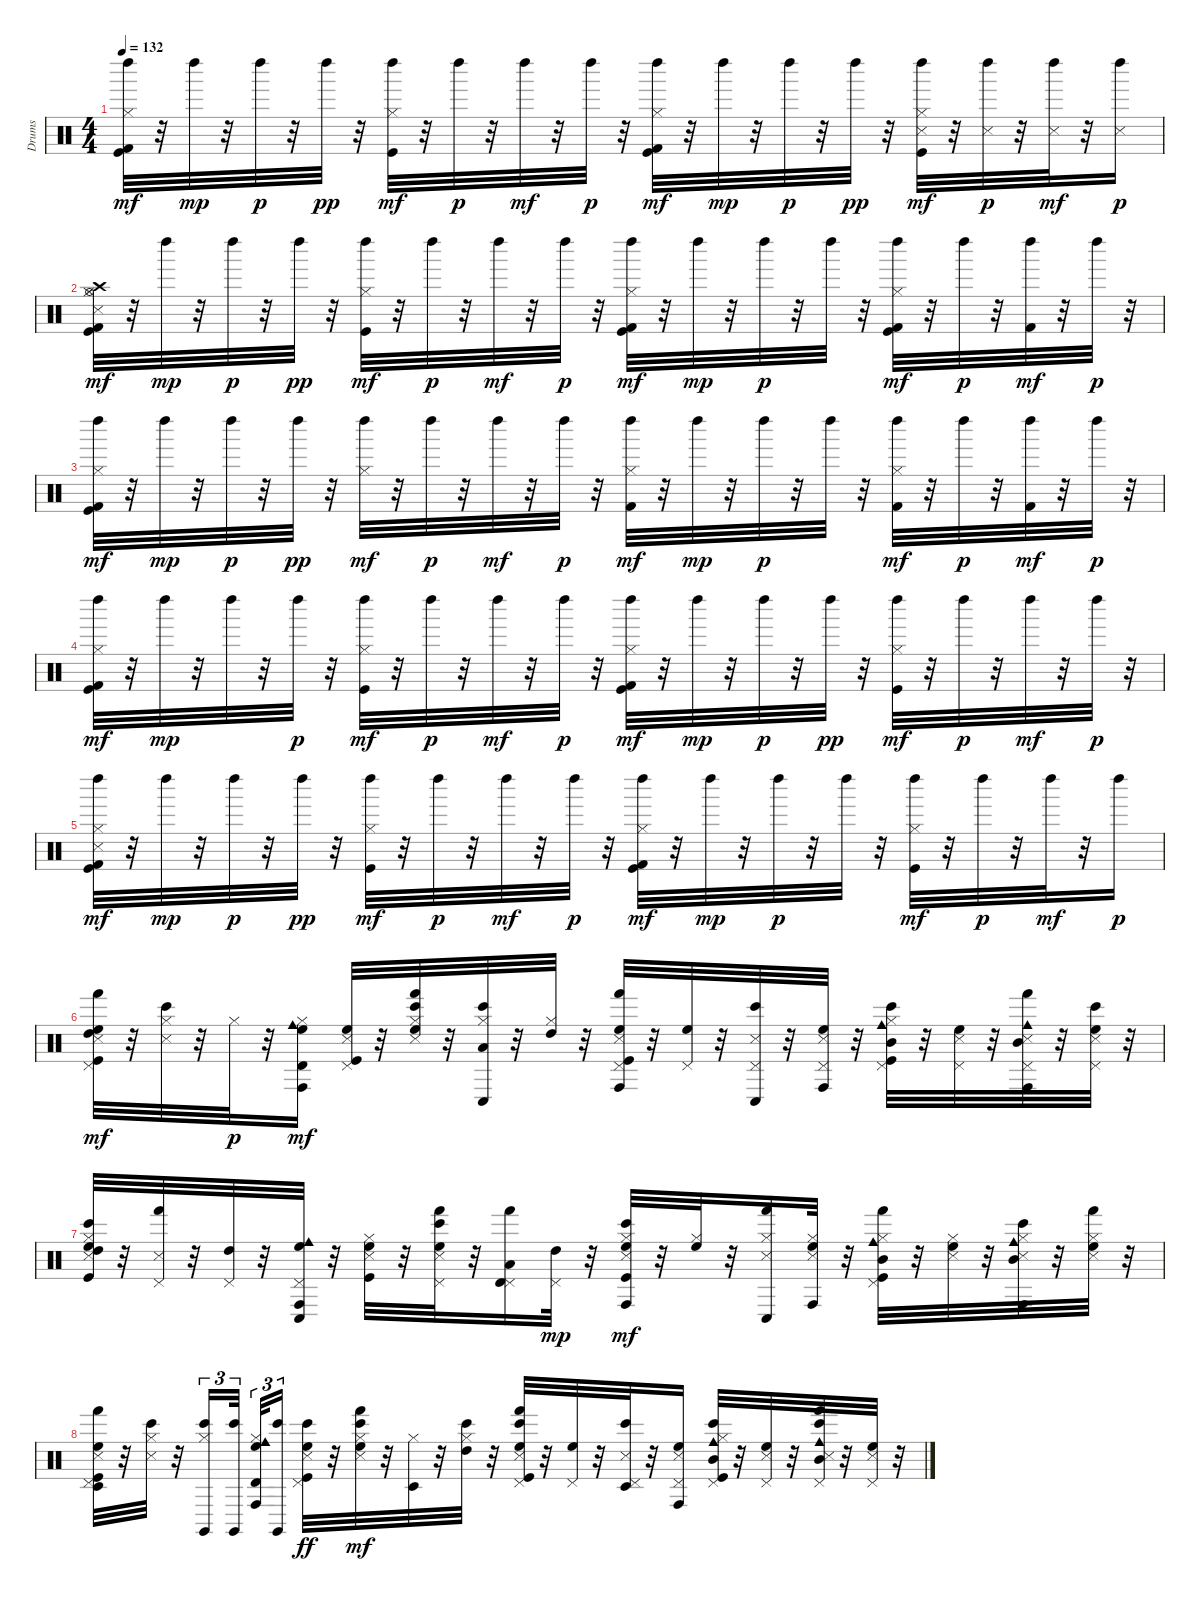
\track ("Drums" "Drums") {instrument percussion}
\staff {score}
\articulation defaults
\ts (4 4)
\tempo 132
\clef neutral
\ks c
("Kick (hit)" "Kick (hit) 2" "Hi-Hat (closed)" "Left Maraca (hit)").32{dy mf} r.32 "Left Maraca (hit)".32{dy mp} r.32 "Left Maraca (hit)".32{dy p} r.32 "Left Maraca (hit)".32{dy pp} r.32 ("Kick (hit)" "Hi-Hat (closed)" "Left Maraca (hit)").32{dy mf} r.32 "Left Maraca (hit)".32{dy p} r.32 "Left Maraca (hit)".32{dy mf} r.32 "Left Maraca (hit)".32{dy p} r.32 ("Kick (hit)" "Kick (hit) 2" "Hi-Hat (closed)" "Left Maraca (hit)").32{dy mf} r.32 "Left Maraca (hit)".32{dy mp} r.32 "Left Maraca (hit)".32{dy p} r.32 "Left Maraca (hit)".32{dy pp} r.32 ("Kick (hit)" "Snare (side stick) 3" "Hi-Hat (closed)" "Left Maraca (hit)").32{dy mf} r.32 ("Snare (side stick) 3" "Left Maraca (hit)").32{dy p} r.32 ("Snare (side stick) 3" "Left Maraca (hit)").32{dy mf} r.32 ("Snare (side stick) 3" "Left Maraca (hit)").16{dy p} |
("Kick (hit)" "Kick (hit) 2" "Snare (side stick) 3" "Hi-Hat (closed)" "Hi-Hat (open)" "Crash high (hit)").32{dy mf} r.32 "Left Maraca (hit)".32{dy mp} r.32 "Left Maraca (hit)".32{dy p} r.32 "Left Maraca (hit)".32{dy pp} r.32 ("Kick (hit)" "Hi-Hat (closed)" "Left Maraca (hit)").32{dy mf} r.32 "Left Maraca (hit)".32{dy p} r.32 "Left Maraca (hit)".32{dy mf} r.32 "Left Maraca (hit)".32{dy p} r.32 ("Kick (hit)" "Kick (hit) 2" "Hi-Hat (closed)" "Left Maraca (hit)").32{dy mf} r.32 "Left Maraca (hit)".32{dy mp} r.32 "Left Maraca (hit)".32{dy p} r.32 "Left Maraca (hit)".32 r.32 ("Kick (hit)" "Kick (hit) 2" "Hi-Hat (closed)" "Left Maraca (hit)").32{dy mf} r.32 "Left Maraca (hit)".32{dy p} r.32 ("Kick (hit) 2" "Left Maraca (hit)").32{dy mf} r.32 "Left Maraca (hit)".32{dy p} r.32 |
("Kick (hit)" "Kick (hit) 2" "Hi-Hat (closed)" "Left Maraca (hit)").32{dy mf} r.32 "Left Maraca (hit)".32{dy mp} r.32 "Left Maraca (hit)".32{dy p} r.32 "Left Maraca (hit)".32{dy pp} r.32 ("Hi-Hat (closed)" "Left Maraca (hit)").32{dy mf} r.32 "Left Maraca (hit)".32{dy p} r.32 "Left Maraca (hit)".32{dy mf} r.32 "Left Maraca (hit)".32{dy p} r.32 ("Kick (hit) 2" "Hi-Hat (closed)" "Left Maraca (hit)").32{dy mf} r.32 "Left Maraca (hit)".32{dy mp} r.32 "Left Maraca (hit)".32{dy p} r.32 "Left Maraca (hit)".32 r.32 ("Kick (hit) 2" "Hi-Hat (closed)" "Left Maraca (hit)").32{dy mf} r.32 "Left Maraca (hit)".32{dy p} r.32 ("Kick (hit) 2" "Left Maraca (hit)").32{dy mf} r.32 "Left Maraca (hit)".32{dy p} r.32 |
("Kick (hit)" "Kick (hit) 2" "Hi-Hat (closed)" "Left Maraca (hit)").32{dy mf} r.32 "Left Maraca (hit)".32{dy mp} r.32 "Left Maraca (hit)".32 r.32 "Left Maraca (hit)".32{dy p} r.32 ("Kick (hit)" "Hi-Hat (closed)" "Left Maraca (hit)").32{dy mf} r.32 "Left Maraca (hit)".32{dy p} r.32 "Left Maraca (hit)".32{dy mf} r.32 "Left Maraca (hit)".32{dy p} r.32 ("Kick (hit)" "Kick (hit) 2" "Hi-Hat (closed)" "Left Maraca (hit)").32{dy mf} r.32 "Left Maraca (hit)".32{dy mp} r.32 "Left Maraca (hit)".32{dy p} r.32 "Left Maraca (hit)".32{dy pp} r.32 ("Kick (hit)" "Hi-Hat (closed)" "Left Maraca (hit)").32{dy mf} r.32 "Left Maraca (hit)".32{dy p} r.32 "Left Maraca (hit)".32{dy mf} r.32 "Left Maraca (hit)".32{dy p} r.32 |
("Kick (hit)" "Kick (hit) 2" "Snare (side stick) 3" "Hi-Hat (closed)" "Left Maraca (hit)").32{dy mf} r.32 "Left Maraca (hit)".32{dy mp} r.32 "Left Maraca (hit)".32{dy p} r.32 "Left Maraca (hit)".32{dy pp} r.32 ("Kick (hit)" "Hi-Hat (closed)" "Left Maraca (hit)").32{dy mf} r.32 "Left Maraca (hit)".32{dy p} r.32 "Left Maraca (hit)".32{dy mf} r.32 "Left Maraca (hit)".32{dy p} r.32 ("Kick (hit)" "Kick (hit) 2" "Hi-Hat (closed)" "Left Maraca (hit)").32{dy mf} r.32 "Left Maraca (hit)".32{dy mp} r.32 "Left Maraca (hit)".32{dy p} r.32 "Left Maraca (hit)".32 r.32 ("Kick (hit)" "Hi-Hat (closed)" "Left Maraca (hit)").32{dy mf} r.32 "Left Maraca (hit)".32{dy p} r.32 "Left Maraca (hit)".32{dy mf} r.32 "Left Maraca (hit)".16{dy p} |
("Kick (hit)" "Snare (side stick) 3" "Pedal Hi-Hat (hit)" "High Tom (hit)" "High Floor Tom (hit)" "Hand (hit)").32{dy mf} r.32 ("Snare (side stick) 3" "Hi-Hat (closed)" "Bongo High (hit)").32 r.32 "Hi-Hat (closed)".32{dy p} r.32 ("Hi-Hat (closed)" "High Floor Tom (hit)" "Cowbell medium (hit)" "Conga high (hit)" "Timbale high (hit)").16{dy mf} ("Kick (hit)" "Snare (side stick) 3" "Pedal Hi-Hat (hit)" "High Floor Tom (hit)").32 r.32 ("Snare (side stick) 3" "Hi-Hat (closed)" "High Floor Tom (hit)" "Bongo High (hit)" "Hand (hit)").32 r.32 ("Low Floor Tom (hit)" "Hi-Hat (closed)" "Bongo High (hit)" "Conga low (hit)").32 r.32 ("Hi-Hat (closed)" "High Tom (hit)").32 r.32 ("Kick (hit)" "Snare (side stick) 3" "Pedal Hi-Hat (hit)" "High Floor Tom (hit)" "Hand (hit)" "Conga high (hit)").32 r.32 ("Pedal Hi-Hat (hit)" "High Floor Tom (hit)").32 r.32 ("Snare (side stick) 3" "Pedal Hi-Hat (hit)" "Bongo High (hit)" "Conga low (hit)").32 r.32 ("Snare (side stick) 3" "Pedal Hi-Hat (hit)" "High Floor Tom (hit)" "Conga high (hit)").32 r.32 ("Kick (hit)" "Hi-Hat (closed)" "Pedal Hi-Hat (hit)" "Mid Tom (hit)" "Cowbell medium (hit)" "Bongo High (hit)").32 r.32 ("Snare (side stick) 3" "Pedal Hi-Hat (hit)" "High Floor Tom (hit)").32 r.32 ("Snare (side stick) 3" "Pedal Hi-Hat (hit)" "Mid Tom (hit)" "Cowbell medium (hit)" "Hand (hit)" "Conga high (hit)").32 r.32 ("Snare (side stick) 3" "Pedal Hi-Hat (hit)" "High Floor Tom (hit)" "Bongo High (hit)").32 r.32 |
("Kick (hit)" "Snare (side stick) 3" "Hi-Hat (closed)" "High Tom (hit)" "High Floor Tom (hit)" "Bongo High (hit)").32 r.32 ("Snare (side stick) 3" "Pedal Hi-Hat (hit)" "Hand (hit)").32 r.32 ("Pedal Hi-Hat (hit)" "High Tom (hit)").32 r.32 ("Pedal Hi-Hat (hit)" "High Floor Tom (hit)" "Cowbell medium (hit)" "Conga high (hit)" "Conga low (hit)").32 r.32 ("Kick (hit)" "Snare (side stick) 3" "Hi-Hat (closed)" "High Floor Tom (hit)").32 r.32 ("Snare (side stick) 3" "Pedal Hi-Hat (hit)" "High Floor Tom (hit)" "Bongo High (hit)" "Hand (hit)").32 r.32 ("Low Floor Tom (hit)" "Pedal Hi-Hat (hit)" "Hand (hit)" "Timbale high (hit)").16 ("Pedal Hi-Hat (hit)" "High Tom (hit)").32{dy mp} r.32 ("Kick (hit)" "Snare (side stick) 3" "Hi-Hat (closed)" "High Floor Tom (hit)" "Bongo High (hit)" "Conga high (hit)").32{dy mf} r.32 ("Hi-Hat (closed)" "High Floor Tom (hit)").32 r.32 ("Snare (side stick) 3" "Hi-Hat (closed)" "Hand (hit)" "Conga low (hit)").16 ("Snare (side stick) 3" "Hi-Hat (closed)" "High Floor Tom (hit)" "Conga high (hit)").32 r.32 ("Kick (hit)" "Hi-Hat (closed)" "Pedal Hi-Hat (hit)" "Mid Tom (hit)" "Cowbell medium (hit)" "Hand (hit)").32 r.32 ("Snare (side stick) 3" "Hi-Hat (closed)" "High Floor Tom (hit)").32 r.32 ("Snare (side stick) 3" "Hi-Hat (closed)" "Mid Tom (hit)" "Cowbell medium (hit)" "Bongo High (hit)" "Conga high (hit)").32 r.32 ("Snare (side stick) 3" "Hi-Hat (closed)" "High Floor Tom (hit)" "Hand (hit)").32 r.32 |
("Kick (hit)" "Snare (side stick) 3" "Pedal Hi-Hat (hit)" "High Floor Tom (hit)" "Hand (hit)" "Timbale low (hit)").32 r.32 ("Snare (side stick) 3" "Hi-Hat (closed)" "Bongo High (hit)").32 r.32 ("Hi-Hat (closed)" "Bongo High (hit)" "Claves (hit)").16{tu (3 2)} ("Bongo High (hit)" "Claves (hit)").32{tu (3 2) beam splitsecondary} ("Hi-Hat (closed)" "High Floor Tom (hit)" "Cowbell medium (hit)" "Conga high (hit)" "Timbale high (hit)").32{tu (3 2)} ("Bongo High (hit)" "Claves (hit)").16{tu (3 2)} ("Kick (hit)" "Snare (side stick) 3" "Pedal Hi-Hat (hit)" "High Floor Tom (hit)" "Bongo High (hit)").32{dy ff} r.32 ("Snare (side stick) 3" "Hi-Hat (closed)" "High Floor Tom (hit)" "Bongo High (hit)" "Hand (hit)").32{dy mf} r.32 ("Hi-Hat (closed)" "Timbale low (hit)").32 r.32 ("Hi-Hat (closed)" "High Tom (hit)" "Bongo High (hit)").32 r.32 ("Kick (hit)" "Snare (side stick) 3" "Pedal Hi-Hat (hit)" "High Floor Tom (hit)" "Bongo High (hit)" "Hand (hit)").32 r.32 ("Pedal Hi-Hat (hit)" "High Floor Tom (hit)").32 r.32 ("Snare (side stick) 3" "Pedal Hi-Hat (hit)" "Bongo High (hit)" "Timbale low (hit)").32 r.32 ("Snare (side stick) 3" "Pedal Hi-Hat (hit)" "High Floor Tom (hit)" "Conga high (hit)").16 ("Kick (hit)" "Hi-Hat (closed)" "Pedal Hi-Hat (hit)" "Mid Tom (hit)" "Cowbell medium (hit)" "Bongo High (hit)").32 r.32 ("Snare (side stick) 3" "Pedal Hi-Hat (hit)" "High Floor Tom (hit)").32 r.32 ("Snare (side stick) 3" "Pedal Hi-Hat (hit)" "Mid Tom (hit)" "Cowbell medium (hit)" "Bongo High (hit)" "Hand (hit)").32 r.32 ("Snare (side stick) 3" "Pedal Hi-Hat (hit)" "High Floor Tom (hit)").32 r.32
